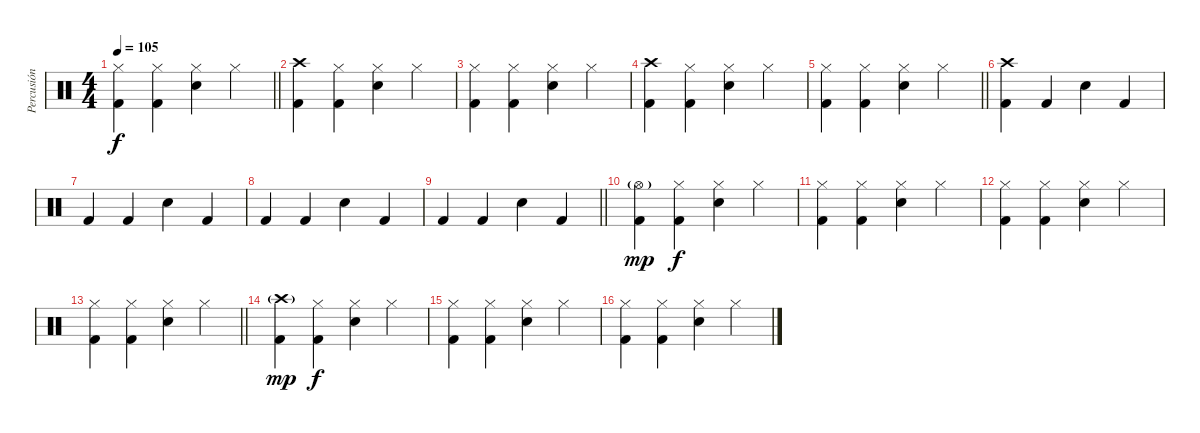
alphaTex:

\track ("Percusión" "Percusión") {instrument percussion}
\staff {score}
\articulation defaults
\ts (4 4)
\tempo 105
\clef neutral
\barLineRight lightlight
\ks c
("Kick (hit) 2" "Hi-Hat (closed)").4{dy f} ("Kick (hit) 2" "Hi-Hat (closed)").4 ("Snare (hit) 2" "Hi-Hat (closed)").4 "Hi-Hat (closed)".4 |
("Kick (hit) 2" "Crash high (hit)").4 ("Kick (hit) 2" "Hi-Hat (closed)").4 ("Snare (hit) 2" "Hi-Hat (closed)").4 "Hi-Hat (closed)".4 |
("Kick (hit) 2" "Hi-Hat (closed)").4 ("Kick (hit) 2" "Hi-Hat (closed)").4 ("Snare (hit) 2" "Hi-Hat (closed)").4 "Hi-Hat (closed)".4 |
("Kick (hit) 2" "Crash high (hit)").4 ("Kick (hit) 2" "Hi-Hat (closed)").4 ("Snare (hit) 2" "Hi-Hat (closed)").4 "Hi-Hat (closed)".4 |
\barLineRight lightlight
("Kick (hit) 2" "Hi-Hat (closed)").4 ("Kick (hit) 2" "Hi-Hat (closed)").4 ("Snare (hit) 2" "Hi-Hat (closed)").4 "Hi-Hat (closed)".4 |
("Crash high (hit)" "Kick (hit) 2").4{volume 8} "Kick (hit) 2".4 "Snare (hit) 2".4 "Kick (hit) 2".4 |
"Kick (hit) 2".4 "Kick (hit) 2".4 "Snare (hit) 2".4 "Kick (hit) 2".4 |
"Kick (hit) 2".4 "Kick (hit) 2".4 "Snare (hit) 2".4 "Kick (hit) 2".4 |
\barLineRight lightlight "Kick (hit) 2".4 "Kick (hit) 2".4 "Snare (hit) 2".4 "Kick (hit) 2".4
|
("Kick (hit) 2" "Hi-Hat (open)"{g}).4{dy mp} ("Kick (hit) 2" "Hi-Hat (closed)").4{dy f} ("Snare (hit) 2" "Hi-Hat (closed)").4 "Hi-Hat (closed)".4 |
("Kick (hit) 2" "Hi-Hat (closed)").4 ("Kick (hit) 2" "Hi-Hat (closed)").4 ("Snare (hit) 2" "Hi-Hat (closed)").4 "Hi-Hat (closed)".4 |
("Kick (hit) 2" "Hi-Hat (closed)").4 ("Kick (hit) 2" "Hi-Hat (closed)").4 ("Snare (hit) 2" "Hi-Hat (closed)").4 "Hi-Hat (closed)".4 |
\barLineRight lightlight
("Kick (hit) 2" "Hi-Hat (closed)").4 ("Kick (hit) 2" "Hi-Hat (closed)").4 ("Snare (hit) 2" "Hi-Hat (closed)").4 "Hi-Hat (closed)".4 |
("Kick (hit) 2" "Crash high (hit)"{g}).4{dy mp} ("Kick (hit) 2" "Hi-Hat (closed)").4{dy f} ("Snare (hit) 2" "Hi-Hat (closed)").4 "Hi-Hat (closed)".4 |
("Kick (hit) 2" "Hi-Hat (closed)").4 ("Kick (hit) 2" "Hi-Hat (closed)").4 ("Snare (hit) 2" "Hi-Hat (closed)").4 "Hi-Hat (closed)".4 |
("Kick (hit) 2" "Hi-Hat (closed)").4 ("Kick (hit) 2" "Hi-Hat (closed)").4 ("Snare (hit) 2" "Hi-Hat (closed)").4 "Hi-Hat (closed)".4
